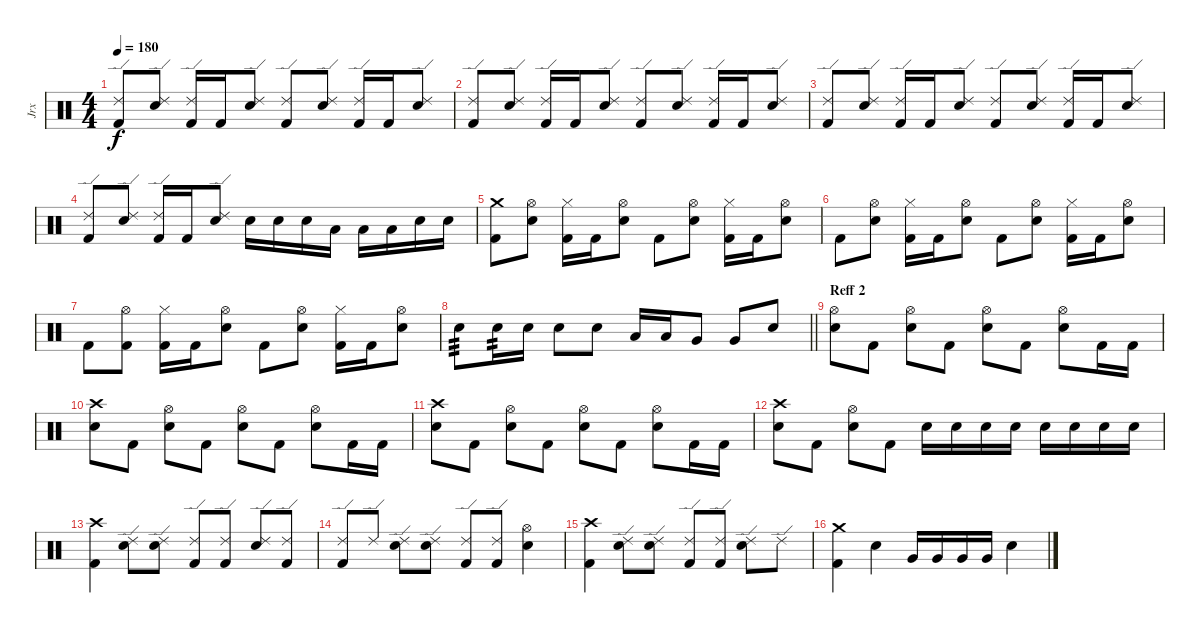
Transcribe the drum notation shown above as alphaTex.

\track ("Jrx" "Jrx") {instrument percussion}
\staff {score}
\articulation defaults
\ts (4 4)
\tempo 180
\clef neutral
\ks c
("Kick (hit) 2" "Ride (edge) 2").8{dy f} ("Electric Snare (hit)" "Ride (edge) 2").8 ("Kick (hit) 2" "Ride (edge) 2").16 "Kick (hit) 2".16 ("Electric Snare (hit)" "Ride (edge) 2").8 ("Kick (hit) 2" "Ride (edge) 2").8 ("Electric Snare (hit)" "Ride (edge) 2").8 ("Kick (hit) 2" "Ride (edge) 2").16 "Kick (hit) 2".16 ("Electric Snare (hit)" "Ride (edge) 2").8 |
("Kick (hit) 2" "Ride (edge) 2").8 ("Electric Snare (hit)" "Ride (edge) 2").8 ("Kick (hit) 2" "Ride (edge) 2").16 "Kick (hit) 2".16 ("Electric Snare (hit)" "Ride (edge) 2").8 ("Kick (hit) 2" "Ride (edge) 2").8 ("Electric Snare (hit)" "Ride (edge) 2").8 ("Kick (hit) 2" "Ride (edge) 2").16 "Kick (hit) 2".16 ("Electric Snare (hit)" "Ride (edge) 2").8 |
("Kick (hit) 2" "Ride (edge) 2").8 ("Electric Snare (hit)" "Ride (edge) 2").8 ("Kick (hit) 2" "Ride (edge) 2").16 "Kick (hit) 2".16 ("Electric Snare (hit)" "Ride (edge) 2").8 ("Kick (hit) 2" "Ride (edge) 2").8 ("Electric Snare (hit)" "Ride (edge) 2").8 ("Kick (hit) 2" "Ride (edge) 2").16 "Kick (hit) 2".16 ("Electric Snare (hit)" "Ride (edge) 2").8 |
("Kick (hit) 2" "Ride (edge) 2").8 ("Electric Snare (hit)" "Ride (edge) 2").8 ("Kick (hit) 2" "Ride (edge) 2").16 "Kick (hit) 2".16 ("Electric Snare (hit)" "Ride (edge) 2").8 "Electric Snare (hit)".16 "Electric Snare (hit)".16 "Electric Snare (hit)".16 "Low Tom (hit)".16 "Low Tom (hit)".16 "Low Tom (hit)".16 "Electric Snare (hit)".16 "Electric Snare (hit)".16 |
("Kick (hit) 2" "Crash medium (hit)").8 ("Electric Snare (hit)" "Hi-Hat (open)").8 ("Kick (hit) 2" "Hi-Hat (closed)").16 "Kick (hit) 2".16 ("Snare (hit) 2" "Hi-Hat (open)").8 "Kick (hit) 2".8 ("Electric Snare (hit)" "Hi-Hat (open)").8 ("Kick (hit) 2" "Hi-Hat (closed)").16 "Kick (hit) 2".16 ("Snare (hit) 2" "Hi-Hat (open)").8 |
"Kick (hit) 2".8 ("Electric Snare (hit)" "Hi-Hat (open)").8 ("Kick (hit) 2" "Hi-Hat (closed)").16 "Kick (hit) 2".16 ("Snare (hit) 2" "Hi-Hat (open)").8 "Kick (hit) 2".8 ("Electric Snare (hit)" "Hi-Hat (open)").8 ("Kick (hit) 2" "Hi-Hat (closed)").16 "Kick (hit) 2".16 ("Snare (hit) 2" "Hi-Hat (open)").8 |
"Kick (hit) 2".8 ("Kick (hit) 2" "Hi-Hat (open)").8 ("Kick (hit) 2" "Hi-Hat (closed)").16 "Kick (hit) 2".16 ("Snare (hit) 2" "Hi-Hat (open)").8 "Kick (hit) 2".8 ("Electric Snare (hit)" "Hi-Hat (open)").8 ("Kick (hit) 2" "Hi-Hat (closed)").16 "Kick (hit) 2".16 ("Snare (hit) 2" "Hi-Hat (open)").8 |
\barLineRight lightlight "Electric Snare (hit)".8{tp 3} "Electric Snare (hit)".16{tp 2} "Electric Snare (hit)".16 "Electric Snare (hit)".8 "Electric Snare (hit)".8 "Low Tom (hit)".16 "Low Tom (hit)".16 "Very Low Tom (hit)".8 "Very Low Tom (hit)".8 "Electric Snare (hit)".8
|
\section ("" "Reff 2")
("Electric Snare (hit)" "Hi-Hat (open)").8 "Kick (hit) 2".8 ("Electric Snare (hit)" "Hi-Hat (open)").8 "Kick (hit) 2".8 ("Snare (hit) 2" "Hi-Hat (open)").8 "Kick (hit) 2".8 ("Electric Snare (hit)" "Hi-Hat (open)").8 "Kick (hit) 2".16 "Kick (hit) 2".16 |
("Electric Snare (hit)" "Crash high (hit)").8 "Kick (hit) 2".8 ("Electric Snare (hit)" "Hi-Hat (open)").8 "Kick (hit) 2".8 ("Snare (hit) 2" "Hi-Hat (open)").8 "Kick (hit) 2".8 ("Electric Snare (hit)" "Hi-Hat (open)").8 "Kick (hit) 2".16 "Kick (hit) 2".16 |
("Electric Snare (hit)" "Crash high (hit)").8 "Kick (hit) 2".8 ("Electric Snare (hit)" "Hi-Hat (open)").8 "Kick (hit) 2".8 ("Snare (hit) 2" "Hi-Hat (open)").8 "Kick (hit) 2".8 ("Electric Snare (hit)" "Hi-Hat (open)").8 "Kick (hit) 2".16 "Kick (hit) 2".16 |
("Electric Snare (hit)" "Crash high (hit)").8 "Kick (hit) 2".8 ("Electric Snare (hit)" "Hi-Hat (open)").8 "Kick (hit) 2".8 "Electric Snare (hit)".16 "Electric Snare (hit)".16 "Electric Snare (hit)".16 "Electric Snare (hit)".16 "Electric Snare (hit)".16 "Electric Snare (hit)".16 "Electric Snare (hit)".16 "Electric Snare (hit)".16 |
("Kick (hit) 2" "Crash high (hit)").4 ("Electric Snare (hit)" "Ride (edge) 2").8 ("Electric Snare (hit)" "Ride (edge) 2").8 ("Kick (hit) 2" "Ride (edge) 2").8 ("Kick (hit) 2" "Ride (edge) 2").8 ("Electric Snare (hit)" "Ride (edge) 2").8 ("Kick (hit) 2" "Ride (edge) 2").8 |
("Kick (hit) 2" "Ride (edge) 2").8 "Ride (edge) 2".8 ("Electric Snare (hit)" "Ride (edge) 2").8 ("Electric Snare (hit)" "Ride (edge) 2").8 ("Kick (hit) 2" "Ride (edge) 2").8 ("Kick (hit) 2" "Ride (edge) 2").8 ("Electric Snare (hit)" "Hi-Hat (open)").4 |
("Kick (hit) 2" "Crash high (hit)").4 ("Electric Snare (hit)" "Ride (edge) 2").8 ("Electric Snare (hit)" "Ride (edge) 2").8 ("Kick (hit) 2" "Ride (edge) 2").8 ("Kick (hit) 2" "Ride (edge) 2").8 ("Electric Snare (hit)" "Ride (edge) 2").8 "Ride (edge) 2".8 |
("Kick (hit) 2" "Crash medium (hit)").4 "Electric Snare (hit)".4 "Very Low Tom (hit)".16 "Very Low Tom (hit)".16 "Very Low Tom (hit)".16 "Very Low Tom (hit)".16 "Electric Snare (hit)".4
